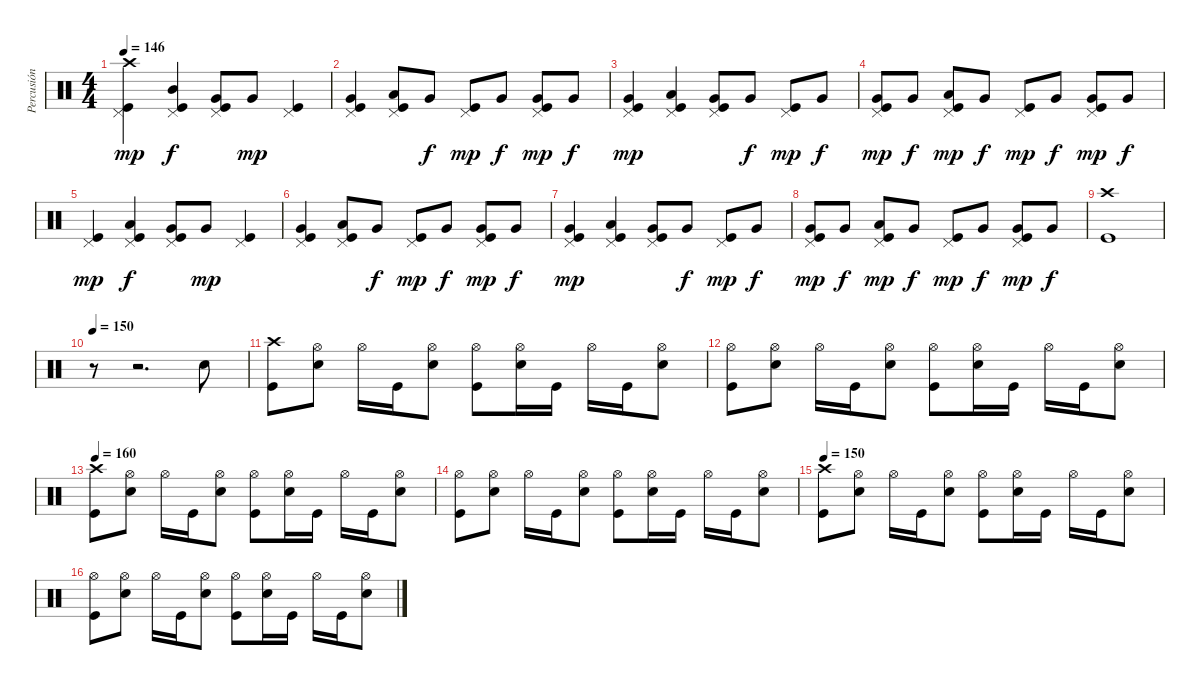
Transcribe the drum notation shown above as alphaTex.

\track ("Percusión" "Percusión") {instrument percussion}
\staff {score}
\articulation defaults
\ts (4 4)
\tempo 146
\clef neutral
\ks c
("Crash high (hit)" "Pedal Hi-Hat (hit)" "Kick (hit)").4{dy mp} ("Pedal Hi-Hat (hit)" "Mid Tom (hit)" "Kick (hit)").4{dy f} ("Pedal Hi-Hat (hit)" "Very Low Tom (hit)" "Kick (hit)").8 "Very Low Tom (hit)".8{dy mp} ("Pedal Hi-Hat (hit)" "Kick (hit)").4 |
("Pedal Hi-Hat (hit)" "Very Low Tom (hit)" "Kick (hit)").4 ("Pedal Hi-Hat (hit)" "Low Tom (hit)" "Kick (hit)").8 "Very Low Tom (hit)".8{dy f} ("Pedal Hi-Hat (hit)" "Kick (hit)").8{dy mp} "Very Low Tom (hit)".8{dy f} ("Pedal Hi-Hat (hit)" "Very Low Tom (hit)" "Kick (hit)").8{dy mp} "Very Low Tom (hit)".8{dy f} |
("Pedal Hi-Hat (hit)" "Very Low Tom (hit)" "Kick (hit)").4{dy mp} ("Pedal Hi-Hat (hit)" "Low Tom (hit)" "Kick (hit)").4 ("Pedal Hi-Hat (hit)" "Very Low Tom (hit)" "Kick (hit)").8 "Very Low Tom (hit)".8{dy f} ("Pedal Hi-Hat (hit)" "Kick (hit)").8{dy mp} "Very Low Tom (hit)".8{dy f} |
("Pedal Hi-Hat (hit)" "Very Low Tom (hit)" "Kick (hit)").8{dy mp} "Very Low Tom (hit)".8{dy f} ("Pedal Hi-Hat (hit)" "Low Tom (hit)" "Kick (hit)").8{dy mp} "Very Low Tom (hit)".8{dy f} ("Pedal Hi-Hat (hit)" "Kick (hit)").8{dy mp} "Very Low Tom (hit)".8{dy f} ("Pedal Hi-Hat (hit)" "Very Low Tom (hit)" "Kick (hit)").8{dy mp} "Very Low Tom (hit)".8{dy f} |
("Pedal Hi-Hat (hit)" "Kick (hit)").4{dy mp} ("Pedal Hi-Hat (hit)" "Low Tom (hit)" "Kick (hit)").4{dy f} ("Pedal Hi-Hat (hit)" "Very Low Tom (hit)" "Kick (hit)").8 "Very Low Tom (hit)".8{dy mp} ("Pedal Hi-Hat (hit)" "Kick (hit)").4 |
("Pedal Hi-Hat (hit)" "Very Low Tom (hit)" "Kick (hit)").4 ("Pedal Hi-Hat (hit)" "Low Tom (hit)" "Kick (hit)").8 "Very Low Tom (hit)".8{dy f} ("Pedal Hi-Hat (hit)" "Kick (hit)").8{dy mp} "Very Low Tom (hit)".8{dy f} ("Pedal Hi-Hat (hit)" "Very Low Tom (hit)" "Kick (hit)").8{dy mp} "Very Low Tom (hit)".8{dy f} |
("Pedal Hi-Hat (hit)" "Very Low Tom (hit)" "Kick (hit)").4{dy mp} ("Pedal Hi-Hat (hit)" "Low Tom (hit)" "Kick (hit)").4 ("Pedal Hi-Hat (hit)" "Very Low Tom (hit)" "Kick (hit)").8 "Very Low Tom (hit)".8{dy f} ("Pedal Hi-Hat (hit)" "Kick (hit)").8{dy mp} "Very Low Tom (hit)".8{dy f} |
("Pedal Hi-Hat (hit)" "Very Low Tom (hit)" "Kick (hit)").8{dy mp} "Very Low Tom (hit)".8{dy f} ("Pedal Hi-Hat (hit)" "Low Tom (hit)" "Kick (hit)").8{dy mp} "Very Low Tom (hit)".8{dy f} ("Pedal Hi-Hat (hit)" "Kick (hit)").8{dy mp} "Very Low Tom (hit)".8{dy f} ("Pedal Hi-Hat (hit)" "Very Low Tom (hit)" "Kick (hit)").8{dy mp} "Very Low Tom (hit)".8{dy f} |
("Crash high (hit)" "Kick (hit)").1 |
\tempo 150
r.8 r.2{d} "Snare (hit) 2".8 |
("Crash high (hit)" "Kick (hit)").8 ("Hi-Hat (open)" "Snare (hit) 2").8 "Hi-Hat (open)".16 "Kick (hit)".16 ("Hi-Hat (open)" "Snare (hit) 2").8 ("Hi-Hat (open)" "Kick (hit)").8 ("Hi-Hat (open)" "Snare (hit) 2").16 "Kick (hit)".16 "Hi-Hat (open)".16 "Kick (hit)".16 ("Hi-Hat (open)" "Snare (hit) 2").8 |
("Hi-Hat (open)" "Kick (hit)").8 ("Hi-Hat (open)" "Snare (hit) 2").8 "Hi-Hat (open)".16 "Kick (hit)".16 ("Hi-Hat (open)" "Snare (hit) 2").8 ("Hi-Hat (open)" "Kick (hit)").8 ("Hi-Hat (open)" "Snare (hit) 2").16 "Kick (hit)".16 "Hi-Hat (open)".16 "Kick (hit)".16 ("Hi-Hat (open)" "Snare (hit) 2").8 |
\tempo 160
("Crash high (hit)" "Kick (hit)").8 ("Hi-Hat (open)" "Snare (hit) 2").8 "Hi-Hat (open)".16 "Kick (hit)".16 ("Hi-Hat (open)" "Snare (hit) 2").8 ("Hi-Hat (open)" "Kick (hit)").8 ("Hi-Hat (open)" "Snare (hit) 2").16 "Kick (hit)".16 "Hi-Hat (open)".16 "Kick (hit)".16 ("Hi-Hat (open)" "Snare (hit) 2").8 |
("Hi-Hat (open)" "Kick (hit)").8 ("Hi-Hat (open)" "Snare (hit) 2").8 "Hi-Hat (open)".16 "Kick (hit)".16 ("Hi-Hat (open)" "Snare (hit) 2").8 ("Hi-Hat (open)" "Kick (hit)").8 ("Hi-Hat (open)" "Snare (hit) 2").16 "Kick (hit)".16 "Hi-Hat (open)".16 "Kick (hit)".16 ("Hi-Hat (open)" "Snare (hit) 2").8 |
\tempo 150
("Crash high (hit)" "Kick (hit)").8 ("Hi-Hat (open)" "Snare (hit) 2").8 "Hi-Hat (open)".16 "Kick (hit)".16 ("Hi-Hat (open)" "Snare (hit) 2").8 ("Hi-Hat (open)" "Kick (hit)").8 ("Hi-Hat (open)" "Snare (hit) 2").16 "Kick (hit)".16 "Hi-Hat (open)".16 "Kick (hit)".16 ("Hi-Hat (open)" "Snare (hit) 2").8 |
("Hi-Hat (open)" "Kick (hit)").8 ("Hi-Hat (open)" "Snare (hit) 2").8 "Hi-Hat (open)".16 "Kick (hit)".16 ("Hi-Hat (open)" "Snare (hit) 2").8 ("Hi-Hat (open)" "Kick (hit)").8 ("Hi-Hat (open)" "Snare (hit) 2").16 "Kick (hit)".16 "Hi-Hat (open)".16 "Kick (hit)".16 ("Hi-Hat (open)" "Snare (hit) 2").8
